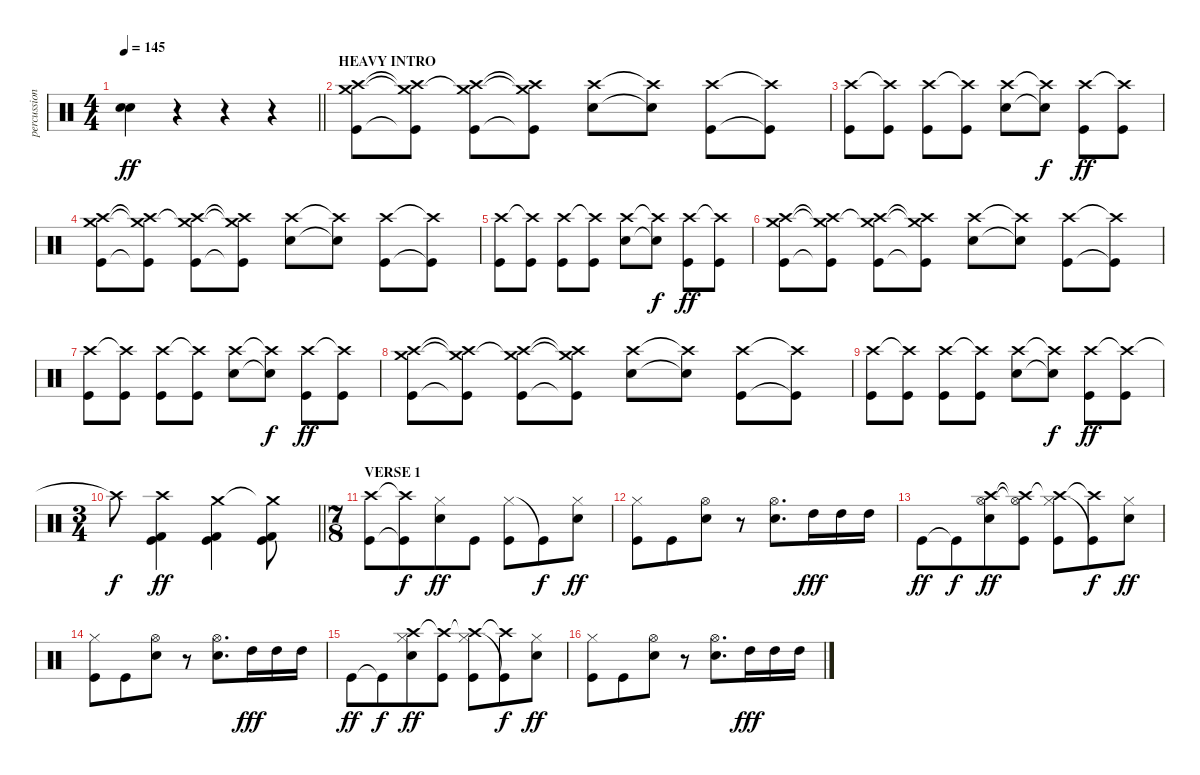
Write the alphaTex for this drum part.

\track ("percussion" "percussion") {instrument percussion}
\staff {score}
\articulation defaults
\ts (4 4)
\tempo 145
\clef neutral
\barLineRight lightlight
\ks c
("Electric Snare (hit)" "Snare (hit) 2").4{dy ff} r.4 r.4 r.4 |
\section ("" "HEAVY INTRO")
("Crash high (hit)" "Crash medium (hit)" "Kick (hit)").8 ("Crash high (hit)"{t} "Crash medium (hit)"{t} "Kick (hit)"{t}).8 ("Crash high (hit)" "Crash medium (hit)"{t} "Kick (hit)").8 ("Crash high (hit)"{t} "Crash medium (hit)"{t} "Kick (hit)"{t}).8 ("Crash high (hit)" "Electric Snare (hit)").8 ("Crash high (hit)"{t} "Electric Snare (hit)"{t}).8 ("Crash high (hit)" "Kick (hit)").8 ("Crash high (hit)"{t} "Kick (hit)"{t}).8 |
("Crash high (hit)" "Kick (hit)").8 ("Crash high (hit)"{t} "Kick (hit)").8 ("Crash high (hit)" "Kick (hit)").8 ("Crash high (hit)"{t} "Kick (hit)").8 ("Crash high (hit)" "Electric Snare (hit)").8 ("Crash high (hit)"{t} "Electric Snare (hit)"{t}).8{dy f} ("Crash high (hit)" "Kick (hit)").8{dy ff} ("Crash high (hit)"{t} "Kick (hit)").8 |
("Crash high (hit)" "Crash medium (hit)" "Kick (hit)").8 ("Crash high (hit)"{t} "Crash medium (hit)"{t} "Kick (hit)"{t}).8 ("Crash high (hit)" "Crash medium (hit)"{t} "Kick (hit)").8 ("Crash high (hit)"{t} "Crash medium (hit)"{t} "Kick (hit)"{t}).8 ("Crash high (hit)" "Electric Snare (hit)").8 ("Crash high (hit)"{t} "Electric Snare (hit)"{t}).8 ("Crash high (hit)" "Kick (hit)").8 ("Crash high (hit)"{t} "Kick (hit)"{t}).8 |
("Crash high (hit)" "Kick (hit)").8 ("Crash high (hit)"{t} "Kick (hit)").8 ("Crash high (hit)" "Kick (hit)").8 ("Crash high (hit)"{t} "Kick (hit)").8 ("Crash high (hit)" "Electric Snare (hit)").8 ("Crash high (hit)"{t} "Electric Snare (hit)"{t}).8{dy f} ("Crash high (hit)" "Kick (hit)").8{dy ff} ("Crash high (hit)"{t} "Kick (hit)").8 |
("Crash high (hit)" "Crash medium (hit)" "Kick (hit)").8 ("Crash high (hit)"{t} "Crash medium (hit)"{t} "Kick (hit)"{t}).8 ("Crash high (hit)" "Crash medium (hit)"{t} "Kick (hit)").8 ("Crash high (hit)"{t} "Crash medium (hit)"{t} "Kick (hit)"{t}).8 ("Crash high (hit)" "Electric Snare (hit)").8 ("Crash high (hit)"{t} "Electric Snare (hit)"{t}).8 ("Crash high (hit)" "Kick (hit)").8 ("Crash high (hit)"{t} "Kick (hit)"{t}).8 |
("Crash high (hit)" "Kick (hit)").8 ("Crash high (hit)"{t} "Kick (hit)").8 ("Crash high (hit)" "Kick (hit)").8 ("Crash high (hit)"{t} "Kick (hit)").8 ("Crash high (hit)" "Electric Snare (hit)").8 ("Crash high (hit)"{t} "Electric Snare (hit)"{t}).8{dy f} ("Crash high (hit)" "Kick (hit)").8{dy ff} ("Crash high (hit)"{t} "Kick (hit)").8 |
("Crash high (hit)" "Crash medium (hit)" "Kick (hit)").8 ("Crash high (hit)"{t} "Crash medium (hit)"{t} "Kick (hit)"{t}).8 ("Crash high (hit)" "Crash medium (hit)"{t} "Kick (hit)").8 ("Crash high (hit)"{t} "Crash medium (hit)"{t} "Kick (hit)"{t}).8 ("Crash high (hit)" "Electric Snare (hit)").8 ("Crash high (hit)"{t} "Electric Snare (hit)"{t}).8 ("Crash high (hit)" "Kick (hit)").8 ("Crash high (hit)"{t} "Kick (hit)"{t}).8 |
("Crash high (hit)" "Kick (hit)").8 ("Crash high (hit)"{t} "Kick (hit)").8 ("Crash high (hit)" "Kick (hit)").8 ("Crash high (hit)"{t} "Kick (hit)").8 ("Crash high (hit)" "Electric Snare (hit)").8 ("Crash high (hit)"{t} "Electric Snare (hit)"{t}).8{dy f} ("Crash high (hit)" "Kick (hit)").8{dy ff} ("Crash high (hit)"{t} "Kick (hit)").8 |
\ts (3 4)
\barLineRight lightlight "Crash high (hit)"{t}.8{dy f}
("Crash high (hit)" "Kick (hit)" "Kick (hit) 2").4{dy ff} ("Crash medium (hit)" "Kick (hit) 2" "Kick (hit)").4 ("Crash medium (hit)"{t} "Kick (hit) 2" "Kick (hit)").8 |
\ts (7 8)
\section ("" "VERSE 1")
("Crash high (hit)" "Kick (hit)").8 ("Crash high (hit)"{t} "Kick (hit)"{t}).8{dy f} ("Hi-Hat (closed)" "Electric Snare (hit)").8{dy ff} "Kick (hit)".8 ("Hi-Hat (closed)" "Kick (hit)").8 "Kick (hit)"{t}.8{dy f} ("Hi-Hat (closed)" "Electric Snare (hit)").8{dy ff} |
("Hi-Hat (closed)" "Kick (hit)").8 "Kick (hit)".8 ("Hi-Hat (open)" "Electric Snare (hit)").8 r.8 ("Hi-Hat (open)" "Electric Snare (hit)").8{d} "High Tom (hit)".16{dy fff} "High Tom (hit)".16 "High Tom (hit)".16 |
"Kick (hit)".8{dy ff} "Kick (hit)"{t}.8{dy f} ("Crash high (hit)" "Hi-Hat (open)" "Electric Snare (hit)").8{dy ff} ("Crash high (hit)"{t} "Hi-Hat (open)"{t} "Kick (hit)").8 ("Crash high (hit)"{t} "Hi-Hat (closed)" "Kick (hit)").8 ("Crash high (hit)"{t} "Kick (hit)"{t}).8{dy f} ("Hi-Hat (closed)" "Electric Snare (hit)").8{dy ff} |
("Hi-Hat (closed)" "Kick (hit)").8 "Kick (hit)".8 ("Hi-Hat (open)" "Electric Snare (hit)").8 r.8 ("Hi-Hat (open)" "Electric Snare (hit)").8{d} "High Tom (hit)".16{dy fff} "High Tom (hit)".16 "High Tom (hit)".16 |
"Kick (hit)".8{dy ff} "Kick (hit)"{t}.8{dy f} ("Crash high (hit)" "Hi-Hat (closed)" "Electric Snare (hit)").8{dy ff} ("Crash high (hit)"{t} "Kick (hit)").8 ("Crash high (hit)"{t} "Hi-Hat (closed)" "Kick (hit)").8 ("Crash high (hit)"{t} "Kick (hit)"{t}).8{dy f} ("Hi-Hat (closed)" "Electric Snare (hit)").8{dy ff} |
("Hi-Hat (closed)" "Kick (hit)").8 "Kick (hit)".8 ("Hi-Hat (open)" "Electric Snare (hit)").8 r.8 ("Hi-Hat (open)" "Electric Snare (hit)").8{d} "High Tom (hit)".16{dy fff} "High Tom (hit)".16 "High Tom (hit)".16
